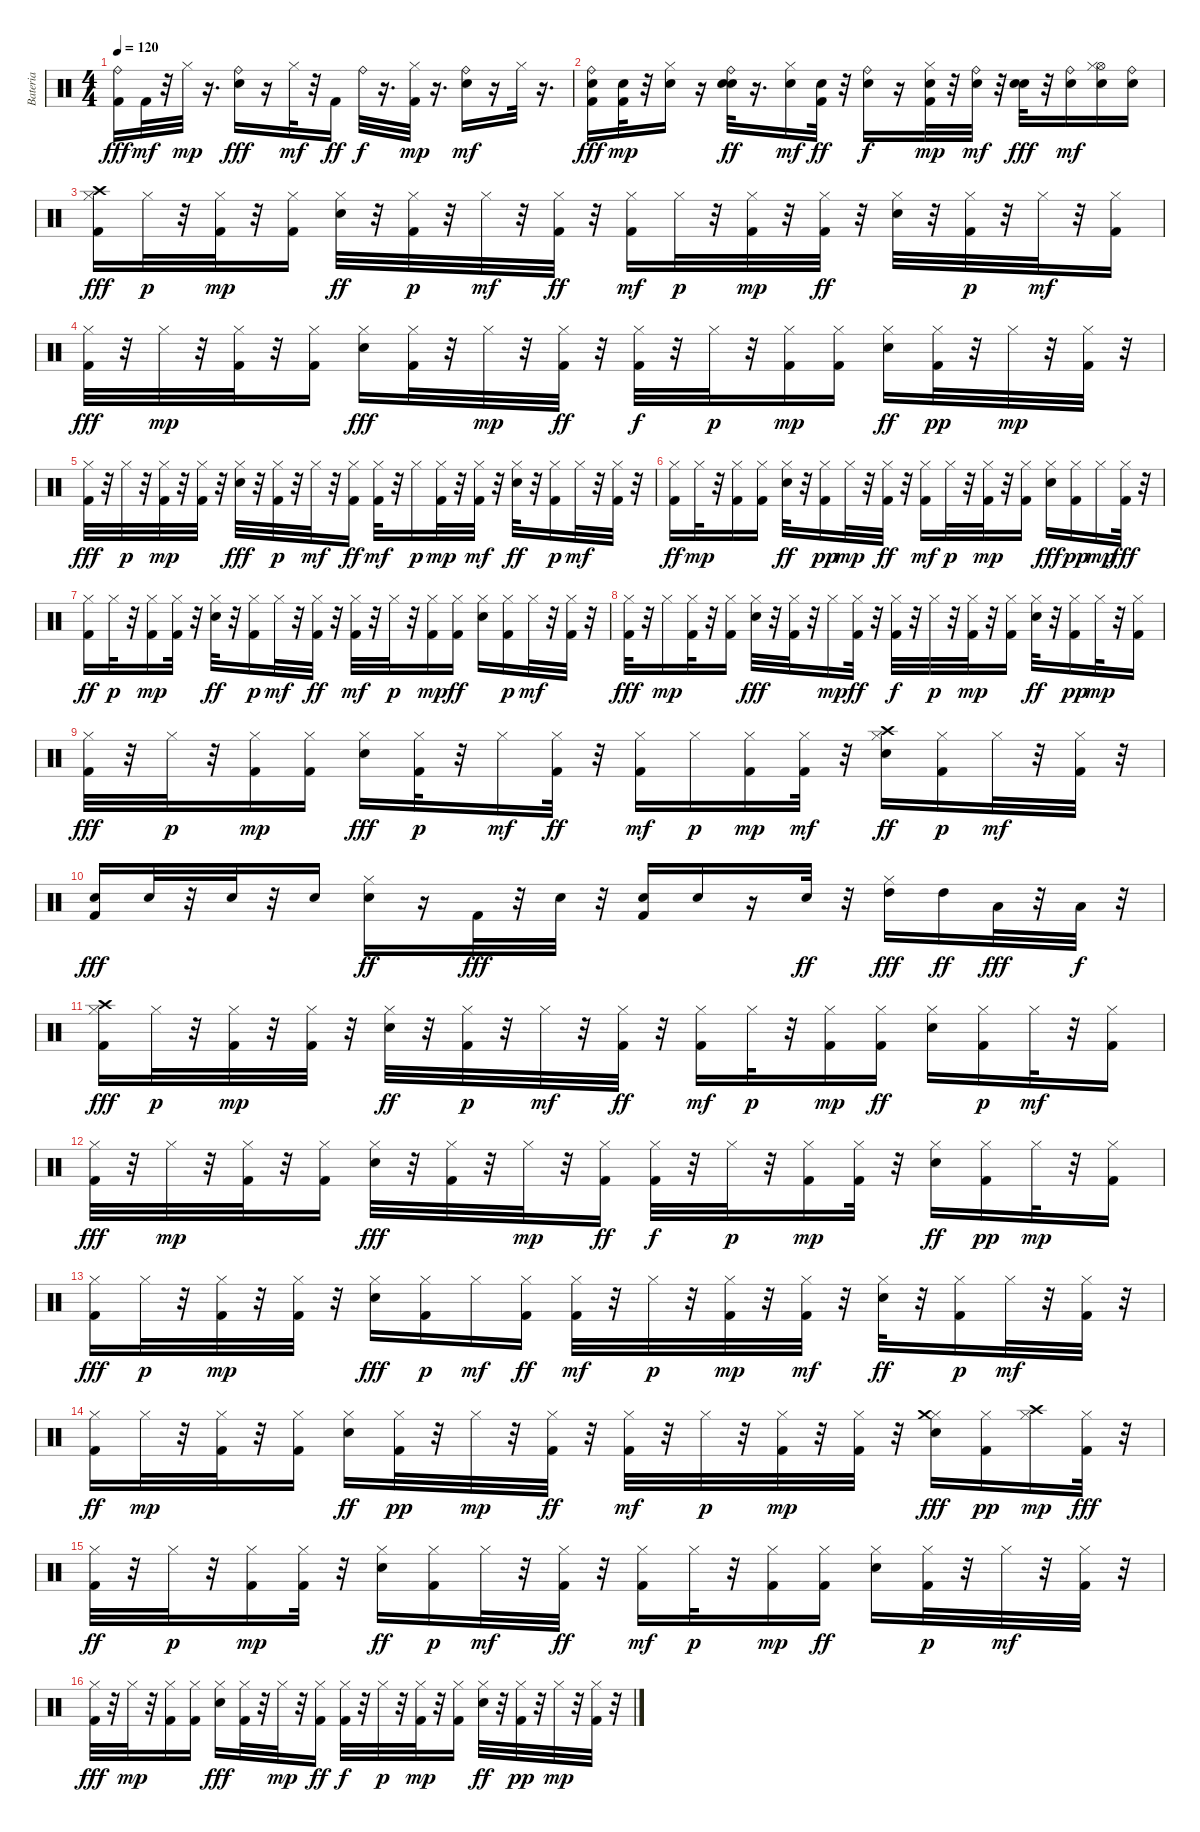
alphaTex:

\track ("Bateria" "Bateria") {instrument percussion}
\staff {score}
\articulation defaults
\ts (4 4)
\tempo 120
\clef neutral
\ks c
("Kick (hit) 2" "Ride (bell)").16{dy fff} "Kick (hit) 2".32{dy mf} r.32 "Hi-Hat (closed)".32{dy mp} r.16{d} ("Ride (bell)" "Snare (hit) 2").16{dy fff} r.16 "Hi-Hat (closed)".32{dy mf} r.32 "Kick (hit) 2".16{dy ff} "Ride (bell)".32{dy f} r.16{d} ("Kick (hit) 2" "Hi-Hat (closed)").32{dy mp} r.16{d} ("Snare (hit) 2" "Ride (bell)").16{dy mf} r.16 "Hi-Hat (closed)".32 r.16{d} |
("Kick (hit) 2" "Ride (bell)" "Electric Snare (hit)").16{dy fff} ("Kick (hit) 2" "Electric Snare (hit)").32{dy mp} r.32 ("Hi-Hat (closed)" "Electric Snare (hit)").16 r.16 ("Ride (bell)" "Snare (hit) 2" "Electric Snare (hit)").32{dy ff} r.16{d} ("Hi-Hat (closed)" "Electric Snare (hit)").16{dy mf} ("Kick (hit) 2" "Electric Snare (hit)").32{dy ff} r.32 ("Ride (bell)" "Electric Snare (hit)").16{dy f} r.16 ("Kick (hit) 2" "Hi-Hat (closed)" "Electric Snare (hit)").32{dy mp} r.32 ("Ride (bell)" "Electric Snare (hit)").32{dy mf} r.32 ("Snare (hit) 2" "Electric Snare (hit)").32{dy fff} r.32 ("Ride (bell)" "Electric Snare (hit)").16{dy mf} ("Hi-Hat (open)" "Hi-Hat (closed)" "Electric Snare (hit)").16 ("Ride (bell)" "Electric Snare (hit)").16 |
("Kick (hit) 2" "Hi-Hat (closed)" "Crash high (hit)").16{dy fff} "Hi-Hat (closed)".32{dy p} r.32 ("Kick (hit) 2" "Hi-Hat (closed)").32{dy mp} r.32 ("Kick (hit) 2" "Hi-Hat (closed)").16 ("Hi-Hat (closed)" "Snare (hit) 2").32{dy ff} r.32 ("Kick (hit) 2" "Hi-Hat (closed)").32{dy p} r.32 "Hi-Hat (closed)".32{dy mf} r.32 ("Kick (hit) 2" "Hi-Hat (closed)").32{dy ff} r.32 ("Kick (hit) 2" "Hi-Hat (closed)").16{dy mf} "Hi-Hat (closed)".32{dy p} r.32 ("Kick (hit) 2" "Hi-Hat (closed)").32{dy mp} r.32 ("Kick (hit) 2" "Hi-Hat (closed)").32{dy ff} r.32 ("Hi-Hat (closed)" "Snare (hit) 2").32 r.32 ("Kick (hit) 2" "Hi-Hat (closed)").32{dy p} r.32 "Hi-Hat (closed)".32{dy mf} r.32 ("Kick (hit) 2" "Hi-Hat (closed)").16 |
("Hi-Hat (closed)" "Kick (hit) 2").32{dy fff} r.32 "Hi-Hat (closed)".32{dy mp} r.32 ("Kick (hit) 2" "Hi-Hat (closed)").32 r.32 ("Kick (hit) 2" "Hi-Hat (closed)").16 ("Hi-Hat (closed)" "Snare (hit) 2").16{dy fff} ("Hi-Hat (closed)" "Kick (hit) 2").32 r.32 "Hi-Hat (closed)".32{dy mp} r.32 ("Kick (hit) 2" "Hi-Hat (closed)").32{dy ff} r.32 ("Hi-Hat (closed)" "Kick (hit) 2").32{dy f} r.32 "Hi-Hat (closed)".32{dy p} r.32 ("Kick (hit) 2" "Hi-Hat (closed)").16{dy mp} ("Kick (hit) 2" "Hi-Hat (closed)").16 ("Hi-Hat (closed)" "Snare (hit) 2").16{dy ff} ("Kick (hit) 2" "Hi-Hat (closed)").32{dy pp} r.32 "Hi-Hat (closed)".32{dy mp} r.32 ("Kick (hit) 2" "Hi-Hat (closed)").32 r.32 |
("Hi-Hat (closed)" "Kick (hit) 2").32{dy fff} r.32 "Hi-Hat (closed)".32{dy p} r.32 ("Kick (hit) 2" "Hi-Hat (closed)").32{dy mp} r.32 ("Kick (hit) 2" "Hi-Hat (closed)").32 r.32 ("Hi-Hat (closed)" "Snare (hit) 2").32{dy fff} r.32 ("Kick (hit) 2" "Hi-Hat (closed)").32{dy p} r.32 "Hi-Hat (closed)".32{dy mf} r.32 ("Hi-Hat (closed)" "Kick (hit) 2").16{dy ff} ("Kick (hit) 2" "Hi-Hat (closed)").32{dy mf} r.32 "Hi-Hat (closed)".16{dy p} ("Kick (hit) 2" "Hi-Hat (closed)").32{dy mp} r.32 ("Hi-Hat (closed)" "Kick (hit) 2").32{dy mf} r.32 ("Hi-Hat (closed)" "Snare (hit) 2").32{dy ff} r.32 ("Kick (hit) 2" "Hi-Hat (closed)").16{dy p} "Hi-Hat (closed)".32{dy mf} r.32 ("Kick (hit) 2" "Hi-Hat (closed)").32 r.32 |
("Kick (hit) 2" "Hi-Hat (closed)").16{dy ff} "Hi-Hat (closed)".32{dy mp} r.32 ("Kick (hit) 2" "Hi-Hat (closed)").16 ("Kick (hit) 2" "Hi-Hat (closed)").16 ("Hi-Hat (closed)" "Snare (hit) 2").32{dy ff} r.32 ("Kick (hit) 2" "Hi-Hat (closed)").16{dy pp} "Hi-Hat (closed)".32{dy mp} r.32 ("Kick (hit) 2" "Hi-Hat (closed)").32{dy ff} r.32 ("Kick (hit) 2" "Hi-Hat (closed)").16{dy mf} "Hi-Hat (closed)".32{dy p} r.32 ("Kick (hit) 2" "Hi-Hat (closed)").32{dy mp} r.32 ("Kick (hit) 2" "Hi-Hat (closed)").16 ("Hi-Hat (closed)" "Snare (hit) 2").16{dy fff} ("Kick (hit) 2" "Hi-Hat (closed)").16{dy pp} "Hi-Hat (closed)".16{dy mp} ("Hi-Hat (closed)" "Kick (hit) 2").32{dy fff} r.32 |
("Kick (hit) 2" "Hi-Hat (closed)").16{dy ff} "Hi-Hat (closed)".32{dy p} r.32 ("Kick (hit) 2" "Hi-Hat (closed)").16{dy mp} ("Kick (hit) 2" "Hi-Hat (closed)").32 r.32 ("Hi-Hat (closed)" "Snare (hit) 2").32{dy ff} r.32 ("Kick (hit) 2" "Hi-Hat (closed)").16{dy p} "Hi-Hat (closed)".32{dy mf} r.32 ("Kick (hit) 2" "Hi-Hat (closed)").32{dy ff} r.32 ("Kick (hit) 2" "Hi-Hat (closed)").32{dy mf} r.32 "Hi-Hat (closed)".32{dy p} r.32 ("Kick (hit) 2" "Hi-Hat (closed)").16{dy mp} ("Kick (hit) 2" "Hi-Hat (closed)").16{dy ff} ("Hi-Hat (closed)" "Snare (hit) 2").16 ("Kick (hit) 2" "Hi-Hat (closed)").16{dy p} "Hi-Hat (closed)".32{dy mf} r.32 ("Kick (hit) 2" "Hi-Hat (closed)").32 r.32 |
("Hi-Hat (closed)" "Kick (hit) 2").32{dy fff} r.32 "Hi-Hat (closed)".16{dy mp} ("Kick (hit) 2" "Hi-Hat (closed)").32 r.32 ("Kick (hit) 2" "Hi-Hat (closed)").16 ("Hi-Hat (closed)" "Snare (hit) 2").32{dy fff} r.32 ("Hi-Hat (closed)" "Kick (hit) 2").32 r.32 "Hi-Hat (closed)".16{dy mp} ("Kick (hit) 2" "Hi-Hat (closed)").32{dy ff} r.32 ("Hi-Hat (closed)" "Kick (hit) 2").32{dy f} r.32 "Hi-Hat (closed)".32{dy p} r.32 ("Kick (hit) 2" "Hi-Hat (closed)").32{dy mp} r.32 ("Kick (hit) 2" "Hi-Hat (closed)").16 ("Hi-Hat (closed)" "Snare (hit) 2").32{dy ff} r.32 ("Kick (hit) 2" "Hi-Hat (closed)").16{dy pp} "Hi-Hat (closed)".32{dy mp} r.32 ("Kick (hit) 2" "Hi-Hat (closed)").16 |
("Hi-Hat (closed)" "Kick (hit) 2").32{dy fff} r.32 "Hi-Hat (closed)".32{dy p} r.32 ("Kick (hit) 2" "Hi-Hat (closed)").16{dy mp} ("Kick (hit) 2" "Hi-Hat (closed)").16 ("Hi-Hat (closed)" "Snare (hit) 2").16{dy fff} ("Kick (hit) 2" "Hi-Hat (closed)").32{dy p} r.32 "Hi-Hat (closed)".16{dy mf} ("Hi-Hat (closed)" "Kick (hit) 2").32{dy ff} r.32 ("Kick (hit) 2" "Hi-Hat (closed)").16{dy mf} "Hi-Hat (closed)".16{dy p} ("Kick (hit) 2" "Hi-Hat (closed)").16{dy mp} ("Hi-Hat (closed)" "Kick (hit) 2").32{dy mf} r.32 ("Hi-Hat (closed)" "Crash high (hit)" "Snare (hit) 2").16{dy ff} ("Kick (hit) 2" "Hi-Hat (closed)").16{dy p} "Hi-Hat (closed)".32{dy mf} r.32 ("Kick (hit) 2" "Hi-Hat (closed)").32 r.32 |
("Kick (hit) 2" "Snare (hit) 2").16{dy fff} "Snare (hit) 2".32 r.32 "Snare (hit) 2".32 r.32 "Snare (hit) 2".16 ("Snare (hit) 2" "Hi-Hat (closed)").16{dy ff} r.16 "Kick (hit) 2".32{dy fff} r.32 "Snare (hit) 2".32 r.32 ("Kick (hit) 2" "Snare (hit) 2").16 "Snare (hit) 2".16 r.16 "Snare (hit) 2".32{dy ff} r.32 ("Hi-Hat (closed)" "High Tom (hit)").16{dy fff} "High Tom (hit)".16{dy ff} "Low Tom (hit)".32{dy fff} r.32 "Low Floor Tom (hit)".32{dy f} r.32 |
("Kick (hit) 2" "Hi-Hat (closed)" "Crash high (hit)").16{dy fff} "Hi-Hat (closed)".32{dy p} r.32 ("Kick (hit) 2" "Hi-Hat (closed)").32{dy mp} r.32 ("Kick (hit) 2" "Hi-Hat (closed)").32 r.32 ("Hi-Hat (closed)" "Snare (hit) 2").32{dy ff} r.32 ("Kick (hit) 2" "Hi-Hat (closed)").32{dy p} r.32 "Hi-Hat (closed)".32{dy mf} r.32 ("Kick (hit) 2" "Hi-Hat (closed)").32{dy ff} r.32 ("Kick (hit) 2" "Hi-Hat (closed)").16{dy mf} "Hi-Hat (closed)".32{dy p} r.32 ("Kick (hit) 2" "Hi-Hat (closed)").16{dy mp} ("Kick (hit) 2" "Hi-Hat (closed)").16{dy ff} ("Hi-Hat (closed)" "Snare (hit) 2").16 ("Kick (hit) 2" "Hi-Hat (closed)").16{dy p} "Hi-Hat (closed)".32{dy mf} r.32 ("Kick (hit) 2" "Hi-Hat (closed)").16 |
("Hi-Hat (closed)" "Kick (hit) 2").32{dy fff} r.32 "Hi-Hat (closed)".32{dy mp} r.32 ("Kick (hit) 2" "Hi-Hat (closed)").32 r.32 ("Kick (hit) 2" "Hi-Hat (closed)").16 ("Hi-Hat (closed)" "Snare (hit) 2").32{dy fff} r.32 ("Hi-Hat (closed)" "Kick (hit) 2").32 r.32 "Hi-Hat (closed)".32{dy mp} r.32 ("Kick (hit) 2" "Hi-Hat (closed)").16{dy ff} ("Hi-Hat (closed)" "Kick (hit) 2").32{dy f} r.32 "Hi-Hat (closed)".32{dy p} r.32 ("Kick (hit) 2" "Hi-Hat (closed)").16{dy mp} ("Kick (hit) 2" "Hi-Hat (closed)").32 r.32 ("Hi-Hat (closed)" "Snare (hit) 2").16{dy ff} ("Kick (hit) 2" "Hi-Hat (closed)").16{dy pp} "Hi-Hat (closed)".32{dy mp} r.32 ("Kick (hit) 2" "Hi-Hat (closed)").16 |
("Hi-Hat (closed)" "Kick (hit) 2").16{dy fff} "Hi-Hat (closed)".32{dy p} r.32 ("Kick (hit) 2" "Hi-Hat (closed)").32{dy mp} r.32 ("Kick (hit) 2" "Hi-Hat (closed)").32 r.32 ("Hi-Hat (closed)" "Snare (hit) 2").16{dy fff} ("Kick (hit) 2" "Hi-Hat (closed)").16{dy p} "Hi-Hat (closed)".16{dy mf} ("Hi-Hat (closed)" "Kick (hit) 2").16{dy ff} ("Kick (hit) 2" "Hi-Hat (closed)").32{dy mf} r.32 "Hi-Hat (closed)".32{dy p} r.32 ("Kick (hit) 2" "Hi-Hat (closed)").32{dy mp} r.32 ("Hi-Hat (closed)" "Kick (hit) 2").32{dy mf} r.32 ("Hi-Hat (closed)" "Snare (hit) 2").32{dy ff} r.32 ("Kick (hit) 2" "Hi-Hat (closed)").16{dy p} "Hi-Hat (closed)".32{dy mf} r.32 ("Kick (hit) 2" "Hi-Hat (closed)").32 r.32 |
("Kick (hit) 2" "Hi-Hat (closed)").16{dy ff} "Hi-Hat (closed)".32{dy mp} r.32 ("Kick (hit) 2" "Hi-Hat (closed)").32 r.32 ("Kick (hit) 2" "Hi-Hat (closed)").16 ("Hi-Hat (closed)" "Snare (hit) 2").16{dy ff} ("Kick (hit) 2" "Hi-Hat (closed)").32{dy pp} r.32 "Hi-Hat (closed)".32{dy mp} r.32 ("Kick (hit) 2" "Hi-Hat (closed)").32{dy ff} r.32 ("Kick (hit) 2" "Hi-Hat (closed)").32{dy mf} r.32 "Hi-Hat (closed)".32{dy p} r.32 ("Kick (hit) 2" "Hi-Hat (closed)").32{dy mp} r.32 ("Kick (hit) 2" "Hi-Hat (closed)").32 r.32 ("Hi-Hat (closed)" "Crash medium (hit)" "Snare (hit) 2").16{dy fff} ("Kick (hit) 2" "Hi-Hat (closed)").16{dy pp} ("Hi-Hat (closed)" "Crash high (hit)").16{dy mp} ("Hi-Hat (closed)" "Kick (hit) 2").32{dy fff} r.32 |
("Kick (hit) 2" "Hi-Hat (closed)").32{dy ff} r.32 "Hi-Hat (closed)".32{dy p} r.32 ("Kick (hit) 2" "Hi-Hat (closed)").16{dy mp} ("Kick (hit) 2" "Hi-Hat (closed)").32 r.32 ("Hi-Hat (closed)" "Snare (hit) 2").16{dy ff} ("Kick (hit) 2" "Hi-Hat (closed)").16{dy p} "Hi-Hat (closed)".32{dy mf} r.32 ("Kick (hit) 2" "Hi-Hat (closed)").32{dy ff} r.32 ("Kick (hit) 2" "Hi-Hat (closed)").16{dy mf} "Hi-Hat (closed)".32{dy p} r.32 ("Kick (hit) 2" "Hi-Hat (closed)").16{dy mp} ("Kick (hit) 2" "Hi-Hat (closed)").16{dy ff} ("Hi-Hat (closed)" "Snare (hit) 2").16 ("Kick (hit) 2" "Hi-Hat (closed)").32{dy p} r.32 "Hi-Hat (closed)".32{dy mf} r.32 ("Kick (hit) 2" "Hi-Hat (closed)").32 r.32 |
("Hi-Hat (closed)" "Kick (hit) 2").32{dy fff} r.32 "Hi-Hat (closed)".32{dy mp} r.32 ("Kick (hit) 2" "Hi-Hat (closed)").16 ("Kick (hit) 2" "Hi-Hat (closed)").16 ("Hi-Hat (closed)" "Snare (hit) 2").16{dy fff} ("Hi-Hat (closed)" "Kick (hit) 2").32 r.32 "Hi-Hat (closed)".32{dy mp} r.32 ("Kick (hit) 2" "Hi-Hat (closed)").16{dy ff} ("Hi-Hat (closed)" "Kick (hit) 2").32{dy f} r.32 "Hi-Hat (closed)".32{dy p} r.32 ("Kick (hit) 2" "Hi-Hat (closed)").32{dy mp} r.32 ("Kick (hit) 2" "Hi-Hat (closed)").16 ("Hi-Hat (closed)" "Snare (hit) 2").32{dy ff} r.32 ("Kick (hit) 2" "Hi-Hat (closed)").32{dy pp} r.32 "Hi-Hat (closed)".32{dy mp} r.32 ("Kick (hit) 2" "Hi-Hat (closed)").32 r.32
